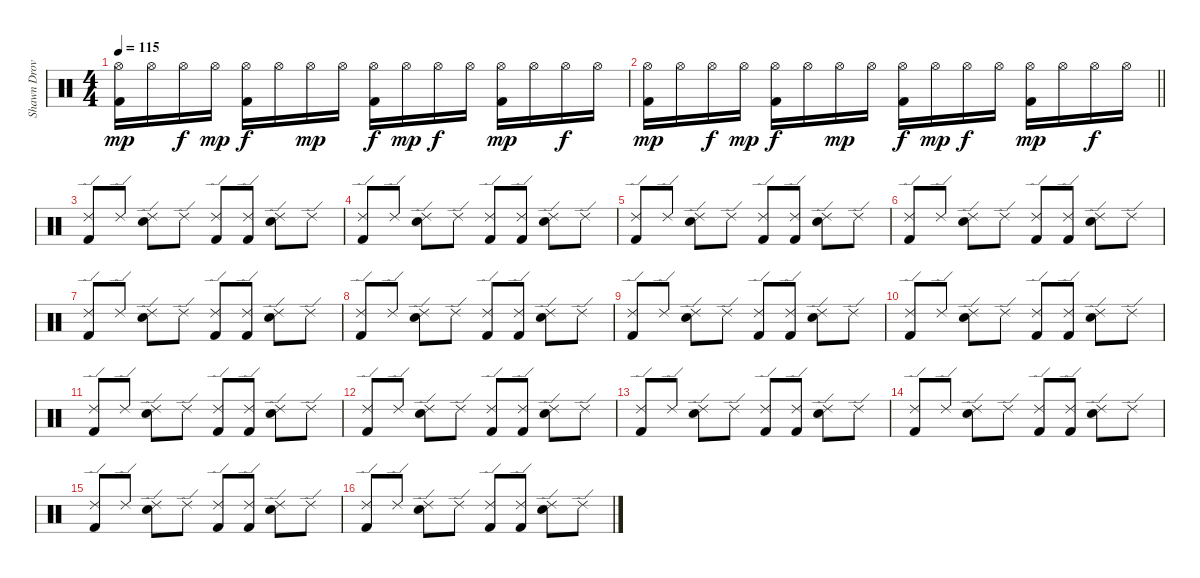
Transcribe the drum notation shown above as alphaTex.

\track ("Shawn Drover" "Shawn Drov") {instrument percussion}
\staff {score}
\articulation defaults
\ts (4 4)
\tempo 115
\clef neutral
\ks c
("Hi-Hat (open)" "Kick (hit) 2").16{dy mp} "Hi-Hat (open)".16 "Hi-Hat (open)".16{dy f} "Hi-Hat (open)".16{dy mp} ("Hi-Hat (open)" "Kick (hit) 2").16{dy f} "Hi-Hat (open)".16 "Hi-Hat (open)".16{dy mp} "Hi-Hat (open)".16 ("Hi-Hat (open)" "Kick (hit) 2").16{dy f} "Hi-Hat (open)".16{dy mp} "Hi-Hat (open)".16{dy f} "Hi-Hat (open)".16 ("Hi-Hat (open)" "Kick (hit) 2").16{dy mp} "Hi-Hat (open)".16 "Hi-Hat (open)".16{dy f} "Hi-Hat (open)".16 |
\barLineRight lightlight
("Hi-Hat (open)" "Kick (hit) 2").16{dy mp} "Hi-Hat (open)".16 "Hi-Hat (open)".16{dy f} "Hi-Hat (open)".16{dy mp} ("Hi-Hat (open)" "Kick (hit) 2").16{dy f} "Hi-Hat (open)".16 "Hi-Hat (open)".16{dy mp} "Hi-Hat (open)".16 ("Hi-Hat (open)" "Kick (hit) 2").16{dy f} "Hi-Hat (open)".16{dy mp} "Hi-Hat (open)".16{dy f} "Hi-Hat (open)".16 ("Hi-Hat (open)" "Kick (hit) 2").16{dy mp} "Hi-Hat (open)".16 "Hi-Hat (open)".16{dy f} "Hi-Hat (open)".16 |
("Ride (edge) 2" "Kick (hit) 2").8 "Ride (edge) 2".8 ("Ride (edge) 2" "Snare (hit) 2").8 "Ride (edge) 2".8 ("Ride (edge) 2" "Kick (hit) 2").8 ("Ride (edge) 2" "Kick (hit) 2").8 ("Ride (edge) 2" "Snare (hit) 2").8 "Ride (edge) 2".8 |
("Ride (edge) 2" "Kick (hit) 2").8 "Ride (edge) 2".8 ("Ride (edge) 2" "Snare (hit) 2").8 "Ride (edge) 2".8 ("Ride (edge) 2" "Kick (hit) 2").8 ("Ride (edge) 2" "Kick (hit) 2").8 ("Ride (edge) 2" "Snare (hit) 2").8 "Ride (edge) 2".8 |
("Ride (edge) 2" "Kick (hit) 2").8 "Ride (edge) 2".8 ("Ride (edge) 2" "Snare (hit) 2").8 "Ride (edge) 2".8 ("Ride (edge) 2" "Kick (hit) 2").8 ("Ride (edge) 2" "Kick (hit) 2").8 ("Ride (edge) 2" "Snare (hit) 2").8 "Ride (edge) 2".8 |
("Ride (edge) 2" "Kick (hit) 2").8 "Ride (edge) 2".8 ("Ride (edge) 2" "Snare (hit) 2").8 "Ride (edge) 2".8 ("Ride (edge) 2" "Kick (hit) 2").8 ("Ride (edge) 2" "Kick (hit) 2").8 ("Ride (edge) 2" "Snare (hit) 2").8 "Ride (edge) 2".8 |
("Ride (edge) 2" "Kick (hit) 2").8 "Ride (edge) 2".8 ("Ride (edge) 2" "Snare (hit) 2").8 "Ride (edge) 2".8 ("Ride (edge) 2" "Kick (hit) 2").8 ("Ride (edge) 2" "Kick (hit) 2").8 ("Ride (edge) 2" "Snare (hit) 2").8 "Ride (edge) 2".8 |
("Ride (edge) 2" "Kick (hit) 2").8 "Ride (edge) 2".8 ("Ride (edge) 2" "Snare (hit) 2").8 "Ride (edge) 2".8 ("Ride (edge) 2" "Kick (hit) 2").8 ("Ride (edge) 2" "Kick (hit) 2").8 ("Ride (edge) 2" "Snare (hit) 2").8 "Ride (edge) 2".8 |
("Ride (edge) 2" "Kick (hit) 2").8 "Ride (edge) 2".8 ("Ride (edge) 2" "Snare (hit) 2").8 "Ride (edge) 2".8 ("Ride (edge) 2" "Kick (hit) 2").8 ("Ride (edge) 2" "Kick (hit) 2").8 ("Ride (edge) 2" "Snare (hit) 2").8 "Ride (edge) 2".8 |
("Ride (edge) 2" "Kick (hit) 2").8 "Ride (edge) 2".8 ("Ride (edge) 2" "Snare (hit) 2").8 "Ride (edge) 2".8 ("Ride (edge) 2" "Kick (hit) 2").8 ("Ride (edge) 2" "Kick (hit) 2").8 ("Ride (edge) 2" "Snare (hit) 2").8 "Ride (edge) 2".8 |
("Ride (edge) 2" "Kick (hit) 2").8 "Ride (edge) 2".8 ("Ride (edge) 2" "Snare (hit) 2").8 "Ride (edge) 2".8 ("Ride (edge) 2" "Kick (hit) 2").8 ("Ride (edge) 2" "Kick (hit) 2").8 ("Ride (edge) 2" "Snare (hit) 2").8 "Ride (edge) 2".8 |
("Ride (edge) 2" "Kick (hit) 2").8 "Ride (edge) 2".8 ("Ride (edge) 2" "Snare (hit) 2").8 "Ride (edge) 2".8 ("Ride (edge) 2" "Kick (hit) 2").8 ("Ride (edge) 2" "Kick (hit) 2").8 ("Ride (edge) 2" "Snare (hit) 2").8 "Ride (edge) 2".8 |
("Ride (edge) 2" "Kick (hit) 2").8 "Ride (edge) 2".8 ("Ride (edge) 2" "Snare (hit) 2").8 "Ride (edge) 2".8 ("Ride (edge) 2" "Kick (hit) 2").8 ("Ride (edge) 2" "Kick (hit) 2").8 ("Ride (edge) 2" "Snare (hit) 2").8 "Ride (edge) 2".8 |
("Ride (edge) 2" "Kick (hit) 2").8 "Ride (edge) 2".8 ("Ride (edge) 2" "Snare (hit) 2").8 "Ride (edge) 2".8 ("Ride (edge) 2" "Kick (hit) 2").8 ("Ride (edge) 2" "Kick (hit) 2").8 ("Ride (edge) 2" "Snare (hit) 2").8 "Ride (edge) 2".8 |
("Ride (edge) 2" "Kick (hit) 2").8 "Ride (edge) 2".8 ("Ride (edge) 2" "Snare (hit) 2").8 "Ride (edge) 2".8 ("Ride (edge) 2" "Kick (hit) 2").8 ("Ride (edge) 2" "Kick (hit) 2").8 ("Ride (edge) 2" "Snare (hit) 2").8 "Ride (edge) 2".8 |
("Ride (edge) 2" "Kick (hit) 2").8 "Ride (edge) 2".8 ("Ride (edge) 2" "Snare (hit) 2").8 "Ride (edge) 2".8 ("Ride (edge) 2" "Kick (hit) 2").8 ("Ride (edge) 2" "Kick (hit) 2").8 ("Ride (edge) 2" "Snare (hit) 2").8 "Ride (edge) 2".8
